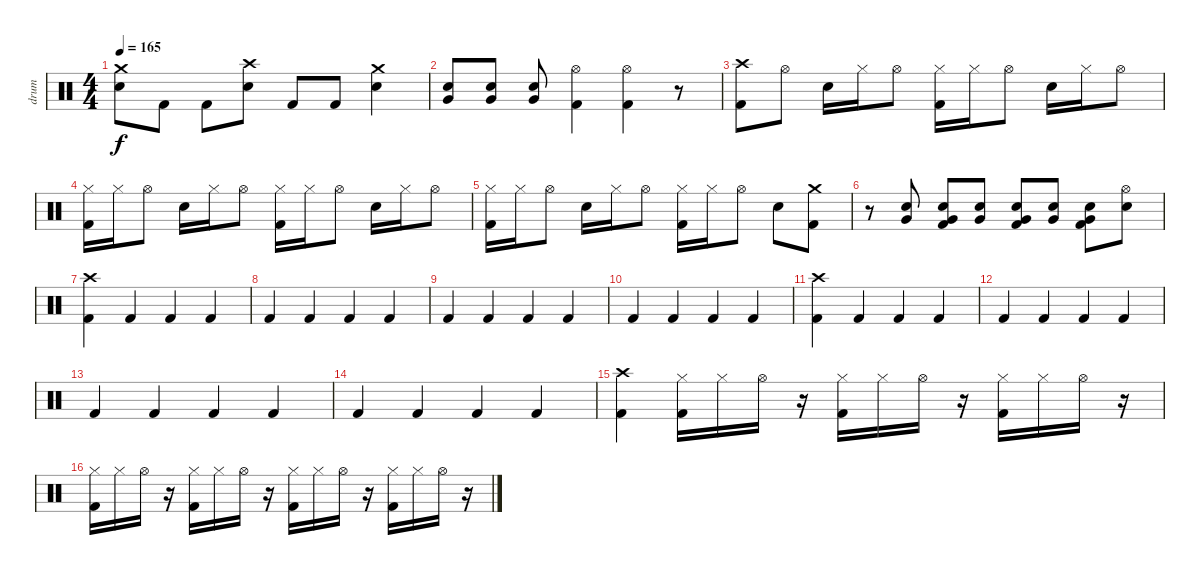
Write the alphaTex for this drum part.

\track ("drum" "drum") {instrument percussion}
\staff {score}
\articulation defaults
\ts (4 4)
\tempo 165
\clef neutral
\ks c
("Crash medium (hit)" "Electric Snare (hit)").8{dy f} "Kick (hit) 2".8 "Kick (hit) 2".8 ("Crash high (hit)" "Electric Snare (hit)").8 "Kick (hit) 2".8 "Kick (hit) 2".8 ("Crash medium (hit)" "Electric Snare (hit)").4 |
("Electric Snare (hit)" "Very Low Tom (hit)").8 ("Electric Snare (hit)" "Very Low Tom (hit)").8 ("Electric Snare (hit)" "Very Low Tom (hit)").8 ("Hi-Hat (open)" "Kick (hit) 2").4 ("Hi-Hat (open)" "Kick (hit) 2").4 r.8 |
("Crash high (hit)" "Kick (hit) 2").8 "Hi-Hat (open)".8 "Electric Snare (hit)".16 "Hi-Hat (closed)".16 "Hi-Hat (open)".8 ("Hi-Hat (closed)" "Kick (hit) 2").16 "Hi-Hat (closed)".16 "Hi-Hat (open)".8 "Electric Snare (hit)".16 "Hi-Hat (closed)".16 "Hi-Hat (open)".8 |
("Hi-Hat (closed)" "Kick (hit) 2").16 "Hi-Hat (closed)".16 "Hi-Hat (open)".8 "Electric Snare (hit)".16 "Hi-Hat (closed)".16 "Hi-Hat (open)".8 ("Hi-Hat (closed)" "Kick (hit) 2").16 "Hi-Hat (closed)".16 "Hi-Hat (open)".8 "Electric Snare (hit)".16 "Hi-Hat (closed)".16 "Hi-Hat (open)".8 |
("Hi-Hat (closed)" "Kick (hit) 2").16 "Hi-Hat (closed)".16 "Hi-Hat (open)".8 "Electric Snare (hit)".16 "Hi-Hat (closed)".16 "Hi-Hat (open)".8 ("Hi-Hat (closed)" "Kick (hit) 2").16 "Hi-Hat (closed)".16 "Hi-Hat (open)".8 "Electric Snare (hit)".8 ("Crash medium (hit)" "Kick (hit) 2").8 |
r.8 ("Very Low Tom (hit)" "Electric Snare (hit)").8 ("Very Low Tom (hit)" "Electric Snare (hit)" "Kick (hit) 2").8 ("Very Low Tom (hit)" "Electric Snare (hit)").8 ("Very Low Tom (hit)" "Electric Snare (hit)" "Kick (hit) 2").8 ("Very Low Tom (hit)" "Electric Snare (hit)").8 ("Very Low Tom (hit)" "Electric Snare (hit)" "Kick (hit) 2").8 ("Hi-Hat (open)" "Electric Snare (hit)").8 |
("Kick (hit) 2" "Crash high (hit)").4 "Kick (hit) 2".4 "Kick (hit) 2".4 "Kick (hit) 2".4 |
"Kick (hit) 2".4 "Kick (hit) 2".4 "Kick (hit) 2".4 "Kick (hit) 2".4 |
"Kick (hit) 2".4 "Kick (hit) 2".4 "Kick (hit) 2".4 "Kick (hit) 2".4 |
"Kick (hit) 2".4 "Kick (hit) 2".4 "Kick (hit) 2".4 "Kick (hit) 2".4 |
("Crash high (hit)" "Kick (hit) 2").4 "Kick (hit) 2".4 "Kick (hit) 2".4 "Kick (hit) 2".4 |
"Kick (hit) 2".4 "Kick (hit) 2".4 "Kick (hit) 2".4 "Kick (hit) 2".4 |
"Kick (hit) 2".4 "Kick (hit) 2".4 "Kick (hit) 2".4 "Kick (hit) 2".4 |
"Kick (hit) 2".4 "Kick (hit) 2".4 "Kick (hit) 2".4 "Kick (hit) 2".4 |
("Crash high (hit)" "Kick (hit) 2").4 ("Hi-Hat (closed)" "Kick (hit) 2").16 "Hi-Hat (closed)".16 "Hi-Hat (open)".16 r.16 ("Hi-Hat (closed)" "Kick (hit) 2").16 "Hi-Hat (closed)".16 "Hi-Hat (open)".16 r.16 ("Hi-Hat (closed)" "Kick (hit) 2").16 "Hi-Hat (closed)".16 "Hi-Hat (open)".16 r.16 |
("Hi-Hat (closed)" "Kick (hit) 2").16 "Hi-Hat (closed)".16 "Hi-Hat (open)".16 r.16 ("Hi-Hat (closed)" "Kick (hit) 2").16 "Hi-Hat (closed)".16 "Hi-Hat (open)".16 r.16 ("Hi-Hat (closed)" "Kick (hit) 2").16 "Hi-Hat (closed)".16 "Hi-Hat (open)".16 r.16 ("Hi-Hat (closed)" "Kick (hit) 2").16 "Hi-Hat (closed)".16 "Hi-Hat (open)".16 r.16
